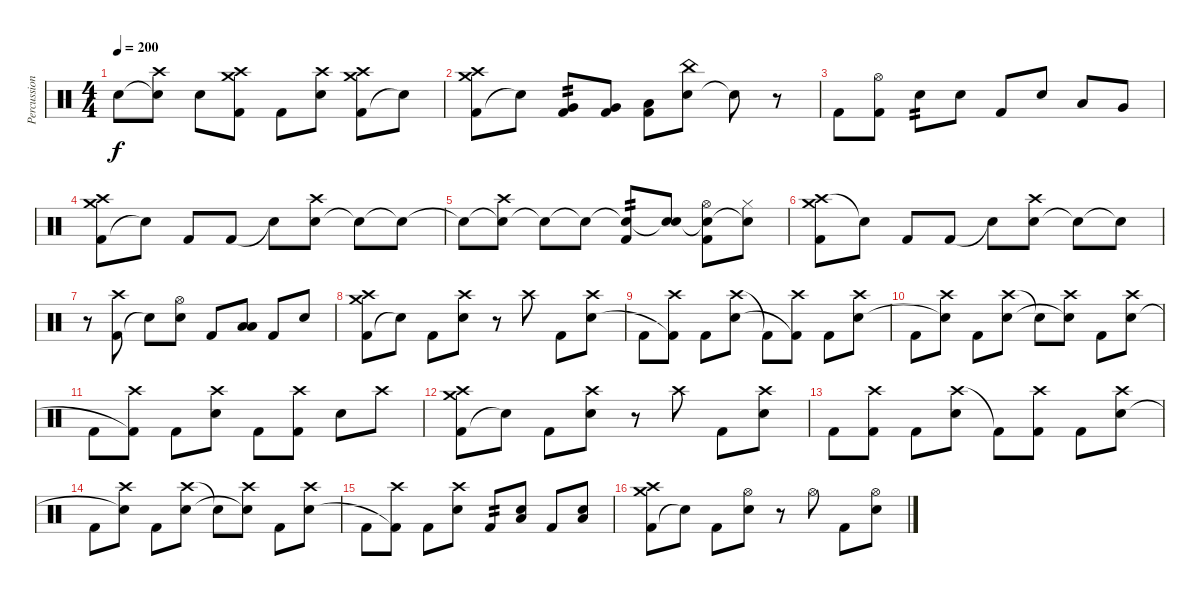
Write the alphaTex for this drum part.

\track ("Percussion" "Percussion") {instrument percussion}
\staff {score}
\articulation defaults
\ts (4 4)
\tempo 200
\clef neutral
\ks c "Snare (hit)"{t}.8{dy f}
("Snare (hit)"{t} "Crash high (hit)").8 "Snare (hit) 2".8 ("Kick (hit) 2" "Crash high (hit)" "Crash medium (hit)").8 "Kick (hit) 2".8 ("Snare (hit) 2" "Crash high (hit)").8 ("Kick (hit) 2" "Crash medium (hit)" "Crash high (hit)").8 "Snare (hit)"{t}.8 |
("Kick (hit) 2" "Crash medium (hit)" "Crash high (hit)").8 "Snare (hit)"{t}.8 ("Very Low Tom (hit)" "Kick (hit) 2").8{tp 2} ("Very Low Tom (hit)" "Kick (hit) 2").8 ("Low Floor Tom (hit)" "Kick (hit) 2").8 ("Snare (hit) 2" "China (hit)").8 "Snare (hit)"{t}.8 r.8 |
"Kick (hit) 2".8 ("Kick (hit) 2" "Hi-Hat (open)").8 "Snare (hit) 2".8{tp 2} "Snare (hit) 2".8 "Kick (hit) 2".8 "Snare (hit) 2".8 "Low Tom (hit)".8 "Very Low Tom (hit)".8 |
("Kick (hit) 2" "Crash medium (hit)" "Crash high (hit)").8 "Snare (hit)"{t}.8 "Kick (hit) 2".8 "Kick (hit) 2".8 "Snare (hit)"{t}.8 ("Snare (hit) 2" "Crash high (hit)").8 "Snare (hit)"{t}.8 "Snare (hit)"{t}.8 |
"Snare (hit)"{t}.8 ("Snare (hit)"{t} "Crash high (hit)").8 "Snare (hit)"{t}.8 "Snare (hit)"{t}.8 ("Snare (hit)"{t} "Kick (hit) 2").8{tp 2} ("Snare (hit)"{t} "Snare (hit) 2").8 ("Snare (hit)"{t} "Kick (hit) 2" "Hi-Hat (open)").8 ("Snare (hit)"{t} "Hi-Hat (closed)").8 |
("Crash high (hit)" "Kick (hit) 2" "Crash medium (hit)").8 "Snare (hit)"{t}.8 "Kick (hit) 2".8 "Kick (hit) 2".8 "Snare (hit)"{t}.8 ("Snare (hit) 2" "Crash high (hit)").8 "Snare (hit)"{t}.8 "Snare (hit)"{t}.8 |
r.8 ("Kick (hit) 2" "Crash high (hit)").8 "Snare (hit)"{t}.8 ("Snare (hit) 2" "Hi-Hat (open)").8 "Kick (hit) 2".8 ("Low Tom (hit)" "Low Floor Tom (hit)").8 "Kick (hit) 2".8 "Snare (hit) 2".8 |
("Kick (hit) 2" "Crash medium (hit)" "Crash high (hit)").8 "Snare (hit)"{t}.8 "Kick (hit) 2".8 ("Snare (hit) 2" "Crash high (hit)").8 r.8 "Crash high (hit)".8 "Kick (hit) 2".8 ("Crash high (hit)" "Snare (hit) 2").8 |
"Kick (hit) 2".8 ("Crash high (hit)" "Kick (hit) 2"{t}).8 "Kick (hit) 2".8 ("Crash high (hit)" "Snare (hit) 2").8 "Kick (hit) 2"{t}.8 ("Crash high (hit)" "Kick (hit) 2"{t}).8 "Kick (hit) 2".8 ("Crash high (hit)" "Snare (hit) 2").8 |
"Kick (hit) 2".8 ("Crash high (hit)" "Snare (hit)"{t}).8 "Kick (hit) 2".8 ("Crash high (hit)" "Snare (hit) 2").8 "Snare (hit)"{t}.8 ("Crash high (hit)" "Snare (hit)"{t}).8 "Kick (hit) 2".8 ("Crash high (hit)" "Snare (hit) 2").8 |
"Kick (hit) 2".8 ("Crash high (hit)" "Kick (hit) 2"{t}).8 "Kick (hit) 2".8 ("Crash high (hit)" "Snare (hit) 2").8 "Kick (hit) 2".8 ("Crash high (hit)" "Kick (hit) 2").8 "Snare (hit) 2".8 "Crash high (hit)".8 |
("Kick (hit) 2" "Crash medium (hit)" "Crash high (hit)").8 "Snare (hit)"{t}.8 "Kick (hit) 2".8 ("Snare (hit) 2" "Crash high (hit)").8 r.8 "Crash high (hit)".8 "Kick (hit) 2".8 ("Crash high (hit)" "Snare (hit) 2").8 |
"Kick (hit) 2".8 ("Crash high (hit)" "Kick (hit) 2").8 "Kick (hit) 2".8 ("Crash high (hit)" "Snare (hit) 2").8 "Kick (hit) 2"{t}.8 ("Crash high (hit)" "Kick (hit) 2").8 "Kick (hit) 2".8 ("Crash high (hit)" "Snare (hit) 2").8 |
"Kick (hit) 2".8 ("Crash high (hit)" "Snare (hit)"{t}).8 "Kick (hit) 2".8 ("Crash high (hit)" "Snare (hit) 2").8 "Snare (hit)"{t}.8 ("Crash high (hit)" "Snare (hit)"{t}).8 "Kick (hit) 2".8 ("Crash high (hit)" "Snare (hit) 2").8 |
"Kick (hit) 2".8 ("Crash high (hit)" "Kick (hit) 2"{t}).8 "Kick (hit) 2".8 ("Crash high (hit)" "Snare (hit) 2").8 "Kick (hit) 2".8{tp 2} ("Low Floor Tom (hit)" "Snare (hit) 2").8 "Kick (hit) 2".8 ("Low Floor Tom (hit)" "Snare (hit) 2").8 |
("Kick (hit) 2" "Crash medium (hit)" "Crash high (hit)").8 "Snare (hit)"{t}.8 "Kick (hit) 2".8 ("Snare (hit) 2" "Hi-Hat (open)").8 r.8 "Hi-Hat (open)".8 "Kick (hit) 2".8 ("Hi-Hat (open)" "Snare (hit) 2").8
